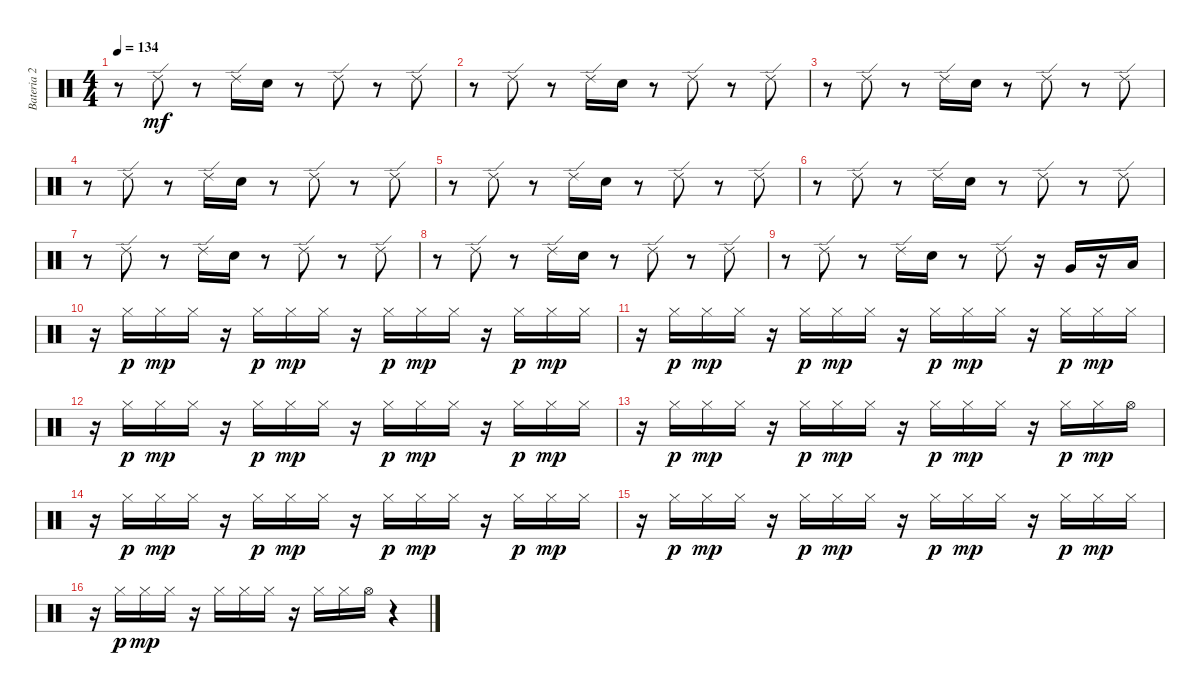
\track ("Bateria 2" "Bateria 2") {instrument percussion}
\staff {score}
\articulation defaults
\ts (4 4)
\tempo 134
\clef neutral
\ks c
r.8{dy mf} "Ride (edge) 2".8 r.8 "Ride (edge) 2".16 "Electric Snare (hit)".16 r.8 "Ride (edge) 2".8 r.8 "Ride (edge) 2".8 |
r.8 "Ride (edge) 2".8 r.8 "Ride (edge) 2".16 "Electric Snare (hit)".16 r.8 "Ride (edge) 2".8 r.8 "Ride (edge) 2".8 |
r.8 "Ride (edge) 2".8 r.8 "Ride (edge) 2".16 "Electric Snare (hit)".16 r.8 "Ride (edge) 2".8 r.8 "Ride (edge) 2".8 |
r.8 "Ride (edge) 2".8 r.8 "Ride (edge) 2".16 "Electric Snare (hit)".16 r.8 "Ride (edge) 2".8 r.8 "Ride (edge) 2".8 |
r.8 "Ride (edge) 2".8 r.8 "Ride (edge) 2".16 "Electric Snare (hit)".16 r.8 "Ride (edge) 2".8 r.8 "Ride (edge) 2".8 |
r.8 "Ride (edge) 2".8 r.8 "Ride (edge) 2".16 "Electric Snare (hit)".16 r.8 "Ride (edge) 2".8 r.8 "Ride (edge) 2".8 |
r.8 "Ride (edge) 2".8 r.8 "Ride (edge) 2".16 "Electric Snare (hit)".16 r.8 "Ride (edge) 2".8 r.8 "Ride (edge) 2".8 |
r.8 "Ride (edge) 2".8 r.8 "Ride (edge) 2".16 "Electric Snare (hit)".16 r.8 "Ride (edge) 2".8 r.8 "Ride (edge) 2".8 |
r.8 "Ride (edge) 2".8 r.8 "Ride (edge) 2".16 "Electric Snare (hit)".16 r.8 "Ride (edge) 2".8 r.16 "Very Low Tom (hit)".16 r.16 "Low Floor Tom (hit)".16 |
r.16 "Hi-Hat (closed)".16{dy p} "Hi-Hat (closed)".16{dy mp} "Hi-Hat (closed)".16 r.16 "Hi-Hat (closed)".16{dy p} "Hi-Hat (closed)".16{dy mp} "Hi-Hat (closed)".16 r.16 "Hi-Hat (closed)".16{dy p} "Hi-Hat (closed)".16{dy mp} "Hi-Hat (closed)".16 r.16 "Hi-Hat (closed)".16{dy p} "Hi-Hat (closed)".16{dy mp} "Hi-Hat (closed)".16 |
r.16 "Hi-Hat (closed)".16{dy p} "Hi-Hat (closed)".16{dy mp} "Hi-Hat (closed)".16 r.16 "Hi-Hat (closed)".16{dy p} "Hi-Hat (closed)".16{dy mp} "Hi-Hat (closed)".16 r.16 "Hi-Hat (closed)".16{dy p} "Hi-Hat (closed)".16{dy mp} "Hi-Hat (closed)".16 r.16 "Hi-Hat (closed)".16{dy p} "Hi-Hat (closed)".16{dy mp} "Hi-Hat (closed)".16 |
r.16 "Hi-Hat (closed)".16{dy p} "Hi-Hat (closed)".16{dy mp} "Hi-Hat (closed)".16 r.16 "Hi-Hat (closed)".16{dy p} "Hi-Hat (closed)".16{dy mp} "Hi-Hat (closed)".16 r.16 "Hi-Hat (closed)".16{dy p} "Hi-Hat (closed)".16{dy mp} "Hi-Hat (closed)".16 r.16 "Hi-Hat (closed)".16{dy p} "Hi-Hat (closed)".16{dy mp} "Hi-Hat (closed)".16 |
r.16 "Hi-Hat (closed)".16{dy p} "Hi-Hat (closed)".16{dy mp} "Hi-Hat (closed)".16 r.16 "Hi-Hat (closed)".16{dy p} "Hi-Hat (closed)".16{dy mp} "Hi-Hat (closed)".16 r.16 "Hi-Hat (closed)".16{dy p} "Hi-Hat (closed)".16{dy mp} "Hi-Hat (closed)".16 r.16 "Hi-Hat (closed)".16{dy p} "Hi-Hat (closed)".16{dy mp} "Hi-Hat (open)".16 |
r.16 "Hi-Hat (closed)".16{dy p} "Hi-Hat (closed)".16{dy mp} "Hi-Hat (closed)".16 r.16 "Hi-Hat (closed)".16{dy p} "Hi-Hat (closed)".16{dy mp} "Hi-Hat (closed)".16 r.16 "Hi-Hat (closed)".16{dy p} "Hi-Hat (closed)".16{dy mp} "Hi-Hat (closed)".16 r.16 "Hi-Hat (closed)".16{dy p} "Hi-Hat (closed)".16{dy mp} "Hi-Hat (closed)".16 |
r.16 "Hi-Hat (closed)".16{dy p} "Hi-Hat (closed)".16{dy mp} "Hi-Hat (closed)".16 r.16 "Hi-Hat (closed)".16{dy p} "Hi-Hat (closed)".16{dy mp} "Hi-Hat (closed)".16 r.16 "Hi-Hat (closed)".16{dy p} "Hi-Hat (closed)".16{dy mp} "Hi-Hat (closed)".16 r.16 "Hi-Hat (closed)".16{dy p} "Hi-Hat (closed)".16{dy mp} "Hi-Hat (closed)".16 |
r.16 "Hi-Hat (closed)".16{dy p} "Hi-Hat (closed)".16{dy mp} "Hi-Hat (closed)".16 r.16 "Hi-Hat (closed)".16 "Hi-Hat (closed)".16 "Hi-Hat (closed)".16 r.16 "Hi-Hat (closed)".16 "Hi-Hat (closed)".16 "Hi-Hat (open)".16 r.4
